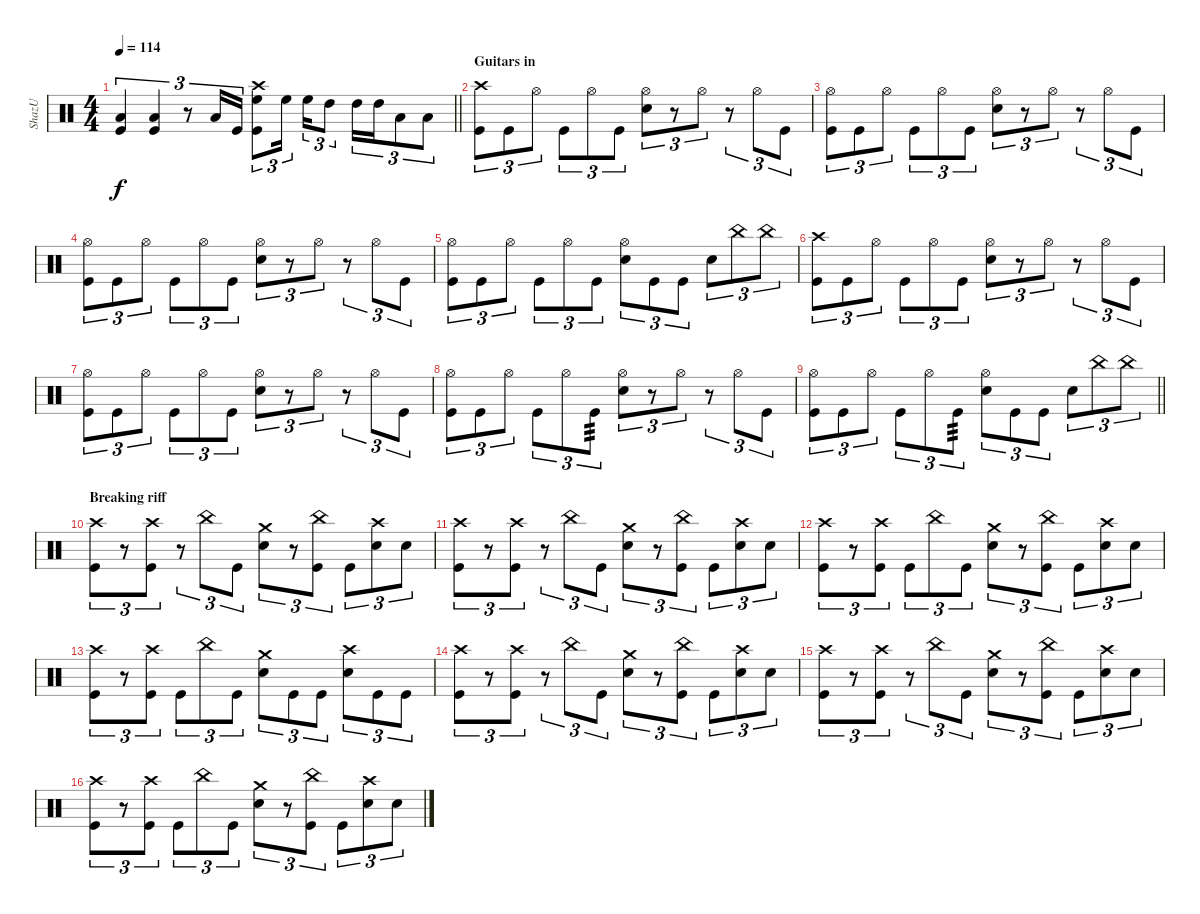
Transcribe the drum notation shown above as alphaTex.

\track ("ShazU" "ShazU") {instrument percussion}
\staff {score}
\articulation defaults
\ts (4 4)
\tempo 114
\clef neutral
\barLineRight lightlight
\ks c
("Kick (hit)" "Low Floor Tom (hit)").4{tu (3 2) dy f} ("Kick (hit)" "Low Floor Tom (hit)").4{tu (3 2)} r.8{tu (3 2)} "Low Floor Tom (hit)".16{tu (3 2)} "Kick (hit)".16{tu (3 2)} ("Kick (hit)" "High Floor Tom (hit)" "Crash high (hit)").8{tu (3 2)} "High Floor Tom (hit)".16{tu (3 2) beam splitsecondary} "High Floor Tom (hit)".16{tu (3 2)} "High Tom (hit)".8{tu (3 2)} "High Tom (hit)".16{tu (3 2)} "High Tom (hit)".16{tu (3 2)} "Low Tom (hit)".8{tu (3 2)} "Low Tom (hit)".8{tu (3 2)} |
\section ("" "Guitars in")
("Kick (hit)" "Crash high (hit)").8{tu (3 2)} "Kick (hit)".8{tu (3 2)} "Hi-Hat (open)".8{tu (3 2)} "Kick (hit)".8{tu (3 2)} "Hi-Hat (open)".8{tu (3 2)} "Kick (hit)".8{tu (3 2)} ("Snare (hit) 2" "Hi-Hat (open)").8{tu (3 2)} r.8{tu (3 2)} "Hi-Hat (open)".8{tu (3 2)} r.8{tu (3 2)} "Hi-Hat (open)".8{tu (3 2)} "Kick (hit)".8{tu (3 2)} |
("Kick (hit)" "Hi-Hat (open)").8{tu (3 2)} "Kick (hit)".8{tu (3 2)} "Hi-Hat (open)".8{tu (3 2)} "Kick (hit)".8{tu (3 2)} "Hi-Hat (open)".8{tu (3 2)} "Kick (hit)".8{tu (3 2)} ("Snare (hit) 2" "Hi-Hat (open)").8{tu (3 2)} r.8{tu (3 2)} "Hi-Hat (open)".8{tu (3 2)} r.8{tu (3 2)} "Hi-Hat (open)".8{tu (3 2)} "Kick (hit)".8{tu (3 2)} |
("Kick (hit)" "Hi-Hat (open)").8{tu (3 2)} "Kick (hit)".8{tu (3 2)} "Hi-Hat (open)".8{tu (3 2)} "Kick (hit)".8{tu (3 2)} "Hi-Hat (open)".8{tu (3 2)} "Kick (hit)".8{tu (3 2)} ("Snare (hit) 2" "Hi-Hat (open)").8{tu (3 2)} r.8{tu (3 2)} "Hi-Hat (open)".8{tu (3 2)} r.8{tu (3 2)} "Hi-Hat (open)".8{tu (3 2)} "Kick (hit)".8{tu (3 2)} |
("Kick (hit)" "Hi-Hat (open)").8{tu (3 2)} "Kick (hit)".8{tu (3 2)} "Hi-Hat (open)".8{tu (3 2)} "Kick (hit)".8{tu (3 2)} "Hi-Hat (open)".8{tu (3 2)} "Kick (hit)".8{tu (3 2)} ("Snare (hit) 2" "Hi-Hat (open)").8{tu (3 2)} "Kick (hit)".8{tu (3 2)} "Kick (hit)".8{tu (3 2)} "Snare (hit) 2".8{tu (3 2)} "China (hit)".8{tu (3 2)} "China (hit)".8{tu (3 2)} |
("Kick (hit)" "Crash high (hit)").8{tu (3 2)} "Kick (hit)".8{tu (3 2)} "Hi-Hat (open)".8{tu (3 2)} "Kick (hit)".8{tu (3 2)} "Hi-Hat (open)".8{tu (3 2)} "Kick (hit)".8{tu (3 2)} ("Snare (hit) 2" "Hi-Hat (open)").8{tu (3 2)} r.8{tu (3 2)} "Hi-Hat (open)".8{tu (3 2)} r.8{tu (3 2)} "Hi-Hat (open)".8{tu (3 2)} "Kick (hit)".8{tu (3 2)} |
("Kick (hit)" "Hi-Hat (open)").8{tu (3 2)} "Kick (hit)".8{tu (3 2)} "Hi-Hat (open)".8{tu (3 2)} "Kick (hit)".8{tu (3 2)} "Hi-Hat (open)".8{tu (3 2)} "Kick (hit)".8{tu (3 2)} ("Snare (hit) 2" "Hi-Hat (open)").8{tu (3 2)} r.8{tu (3 2)} "Hi-Hat (open)".8{tu (3 2)} r.8{tu (3 2)} "Hi-Hat (open)".8{tu (3 2)} "Kick (hit)".8{tu (3 2)} |
("Kick (hit)" "Hi-Hat (open)").8{tu (3 2)} "Kick (hit)".8{tu (3 2)} "Hi-Hat (open)".8{tu (3 2)} "Kick (hit)".8{tu (3 2)} "Hi-Hat (open)".8{tu (3 2)} "Kick (hit)".8{tu (3 2) tp 3} ("Snare (hit) 2" "Hi-Hat (open)").8{tu (3 2)} r.8{tu (3 2)} "Hi-Hat (open)".8{tu (3 2)} r.8{tu (3 2)} "Hi-Hat (open)".8{tu (3 2)} "Kick (hit)".8{tu (3 2)} |
\barLineRight lightlight
("Kick (hit)" "Hi-Hat (open)").8{tu (3 2)} "Kick (hit)".8{tu (3 2)} "Hi-Hat (open)".8{tu (3 2)} "Kick (hit)".8{tu (3 2)} "Hi-Hat (open)".8{tu (3 2)} "Kick (hit)".8{tu (3 2) tp 3} ("Snare (hit) 2" "Hi-Hat (open)").8{tu (3 2)} "Kick (hit)".8{tu (3 2)} "Kick (hit)".8{tu (3 2)} "Snare (hit) 2".8{tu (3 2)} "China (hit)".8{tu (3 2)} "China (hit)".8{tu (3 2)} |
\section ("" "Breaking riff")
("Kick (hit)" "Crash high (hit)").8{tu (3 2)} r.8{tu (3 2)} ("Kick (hit)" "Crash high (hit)").8{tu (3 2)} r.8{tu (3 2)} "China (hit)".8{tu (3 2)} "Kick (hit)".8{tu (3 2)} ("Snare (hit) 2" "Crash medium (hit)").8{tu (3 2)} r.8{tu (3 2)} ("Kick (hit)" "China (hit)").8{tu (3 2)} "Kick (hit)".8{tu (3 2)} ("Snare (hit) 2" "Crash high (hit)").8{tu (3 2)} "Snare (hit) 2".8{tu (3 2)} |
("Kick (hit)" "Crash high (hit)").8{tu (3 2)} r.8{tu (3 2)} ("Kick (hit)" "Crash high (hit)").8{tu (3 2)} r.8{tu (3 2)} "China (hit)".8{tu (3 2)} "Kick (hit)".8{tu (3 2)} ("Snare (hit) 2" "Crash medium (hit)").8{tu (3 2)} r.8{tu (3 2)} ("Kick (hit)" "China (hit)").8{tu (3 2)} "Kick (hit)".8{tu (3 2)} ("Snare (hit) 2" "Crash high (hit)").8{tu (3 2)} "Snare (hit) 2".8{tu (3 2)} |
("Kick (hit)" "Crash high (hit)").8{tu (3 2)} r.8{tu (3 2)} ("Kick (hit)" "Crash high (hit)").8{tu (3 2)} "Kick (hit)".8{tu (3 2)} "China (hit)".8{tu (3 2)} "Kick (hit)".8{tu (3 2)} ("Snare (hit) 2" "Crash medium (hit)").8{tu (3 2)} r.8{tu (3 2)} ("Kick (hit)" "China (hit)").8{tu (3 2)} "Kick (hit)".8{tu (3 2)} ("Snare (hit) 2" "Crash high (hit)").8{tu (3 2)} "Snare (hit) 2".8{tu (3 2)} |
("Kick (hit)" "Crash high (hit)").8{tu (3 2)} r.8{tu (3 2)} ("Kick (hit)" "Crash high (hit)").8{tu (3 2)} "Kick (hit)".8{tu (3 2)} "China (hit)".8{tu (3 2)} "Kick (hit)".8{tu (3 2)} ("Snare (hit) 2" "Crash medium (hit)").8{tu (3 2)} "Kick (hit)".8{tu (3 2)} "Kick (hit)".8{tu (3 2)} ("Snare (hit) 2" "Crash high (hit)").8{tu (3 2)} "Kick (hit)".8{tu (3 2)} "Kick (hit)".8{tu (3 2)} |
("Kick (hit)" "Crash high (hit)").8{tu (3 2)} r.8{tu (3 2)} ("Kick (hit)" "Crash high (hit)").8{tu (3 2)} r.8{tu (3 2)} "China (hit)".8{tu (3 2)} "Kick (hit)".8{tu (3 2)} ("Snare (hit) 2" "Crash medium (hit)").8{tu (3 2)} r.8{tu (3 2)} ("Kick (hit)" "China (hit)").8{tu (3 2)} "Kick (hit)".8{tu (3 2)} ("Snare (hit) 2" "Crash high (hit)").8{tu (3 2)} "Snare (hit) 2".8{tu (3 2)} |
("Kick (hit)" "Crash high (hit)").8{tu (3 2)} r.8{tu (3 2)} ("Kick (hit)" "Crash high (hit)").8{tu (3 2)} r.8{tu (3 2)} "China (hit)".8{tu (3 2)} "Kick (hit)".8{tu (3 2)} ("Snare (hit) 2" "Crash medium (hit)").8{tu (3 2)} r.8{tu (3 2)} ("Kick (hit)" "China (hit)").8{tu (3 2)} "Kick (hit)".8{tu (3 2)} ("Snare (hit) 2" "Crash high (hit)").8{tu (3 2)} "Snare (hit) 2".8{tu (3 2)} |
("Kick (hit)" "Crash high (hit)").8{tu (3 2)} r.8{tu (3 2)} ("Kick (hit)" "Crash high (hit)").8{tu (3 2)} "Kick (hit)".8{tu (3 2)} "China (hit)".8{tu (3 2)} "Kick (hit)".8{tu (3 2)} ("Snare (hit) 2" "Crash medium (hit)").8{tu (3 2)} r.8{tu (3 2)} ("Kick (hit)" "China (hit)").8{tu (3 2)} "Kick (hit)".8{tu (3 2)} ("Snare (hit) 2" "Crash high (hit)").8{tu (3 2)} "Snare (hit) 2".8{tu (3 2)}
